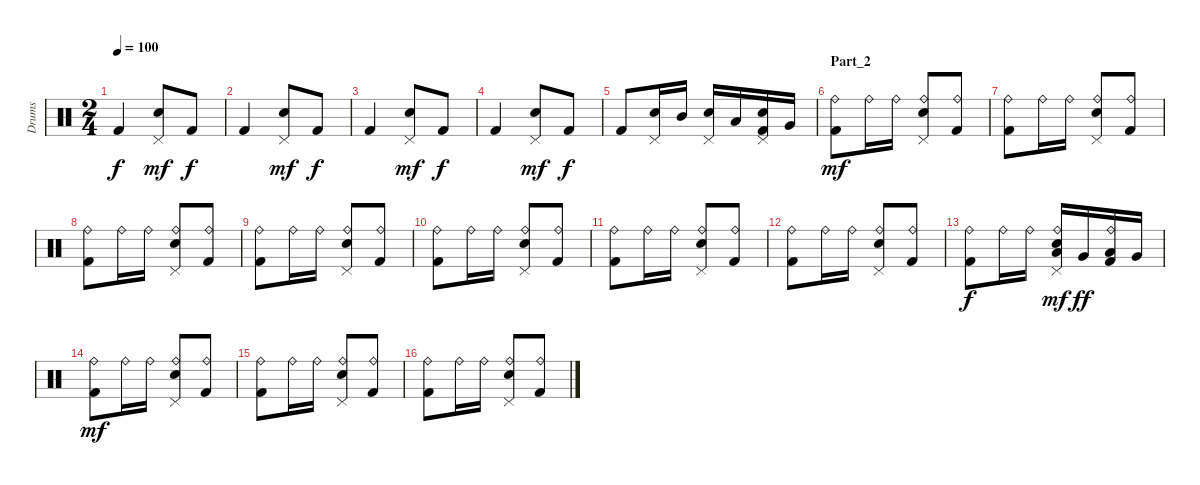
\track ("Drums" "Drums") {instrument percussion}
\staff {score}
\articulation defaults
\ts (2 4)
\tempo 100
\clef neutral
\ks c "Kick (hit) 2".4{dy f}
("Pedal Hi-Hat (hit)" "Electric Snare (hit)").8{dy mf} "Kick (hit) 2".8{dy f} |
"Kick (hit) 2".4 ("Pedal Hi-Hat (hit)" "Electric Snare (hit)").8{dy mf} "Kick (hit) 2".8{dy f} |
"Kick (hit) 2".4 ("Pedal Hi-Hat (hit)" "Electric Snare (hit)").8{dy mf} "Kick (hit) 2".8{dy f} |
"Kick (hit) 2".4 ("Pedal Hi-Hat (hit)" "Electric Snare (hit)").8{dy mf} "Kick (hit) 2".8{dy f} |
"Kick (hit) 2".8 ("Pedal Hi-Hat (hit)" "Electric Snare (hit)").16 "Mid Tom (hit)".16 ("Pedal Hi-Hat (hit)" "Electric Snare (hit)").16 "Low Tom (hit)".16 ("Pedal Hi-Hat (hit)" "Electric Snare (hit)" "Kick (hit) 2").16 "Very Low Tom (hit)".16 |
\section ("" "Part_2")
("Ride (bell)" "Kick (hit) 2").8{dy mf} "Ride (bell)".16 "Ride (bell)".16 ("Ride (bell)" "Pedal Hi-Hat (hit)" "Electric Snare (hit)").8 ("Ride (bell)" "Kick (hit) 2").8 |
("Ride (bell)" "Kick (hit) 2").8 "Ride (bell)".16 "Ride (bell)".16 ("Ride (bell)" "Pedal Hi-Hat (hit)" "Electric Snare (hit)").8 ("Ride (bell)" "Kick (hit) 2").8 |
("Ride (bell)" "Kick (hit) 2").8 "Ride (bell)".16 "Ride (bell)".16 ("Ride (bell)" "Pedal Hi-Hat (hit)" "Electric Snare (hit)").8 ("Ride (bell)" "Kick (hit) 2").8 |
("Ride (bell)" "Kick (hit) 2").8 "Ride (bell)".16 "Ride (bell)".16 ("Ride (bell)" "Pedal Hi-Hat (hit)" "Electric Snare (hit)").8 ("Ride (bell)" "Kick (hit) 2").8 |
("Ride (bell)" "Kick (hit) 2").8 "Ride (bell)".16 "Ride (bell)".16 ("Ride (bell)" "Pedal Hi-Hat (hit)" "Electric Snare (hit)").8 ("Ride (bell)" "Kick (hit) 2").8 |
("Ride (bell)" "Kick (hit) 2").8 "Ride (bell)".16 "Ride (bell)".16 ("Ride (bell)" "Pedal Hi-Hat (hit)" "Electric Snare (hit)").8 ("Ride (bell)" "Kick (hit) 2").8 |
("Ride (bell)" "Kick (hit) 2").8 "Ride (bell)".16 "Ride (bell)".16 ("Ride (bell)" "Pedal Hi-Hat (hit)" "Electric Snare (hit)").8 ("Ride (bell)" "Kick (hit) 2").8 |
("Ride (bell)" "Kick (hit) 2").8{dy f} "Ride (bell)".16 "Ride (bell)".16 ("Ride (bell)" "Pedal Hi-Hat (hit)" "Low Floor Tom (hit)" "Electric Snare (hit)").16{dy mf} "Very Low Tom (hit)".16{dy ff} ("Ride (bell)" "Low Floor Tom (hit)" "Kick (hit) 2").16 "Very Low Tom (hit)".16 |
("Ride (bell)" "Kick (hit) 2").8{dy mf} "Ride (bell)".16 "Ride (bell)".16 ("Ride (bell)" "Pedal Hi-Hat (hit)" "Electric Snare (hit)").8 ("Ride (bell)" "Kick (hit) 2").8 |
("Ride (bell)" "Kick (hit) 2").8 "Ride (bell)".16 "Ride (bell)".16 ("Ride (bell)" "Pedal Hi-Hat (hit)" "Electric Snare (hit)").8 ("Ride (bell)" "Kick (hit) 2").8 |
("Ride (bell)" "Kick (hit) 2").8 "Ride (bell)".16 "Ride (bell)".16 ("Ride (bell)" "Pedal Hi-Hat (hit)" "Electric Snare (hit)").8 ("Ride (bell)" "Kick (hit) 2").8
